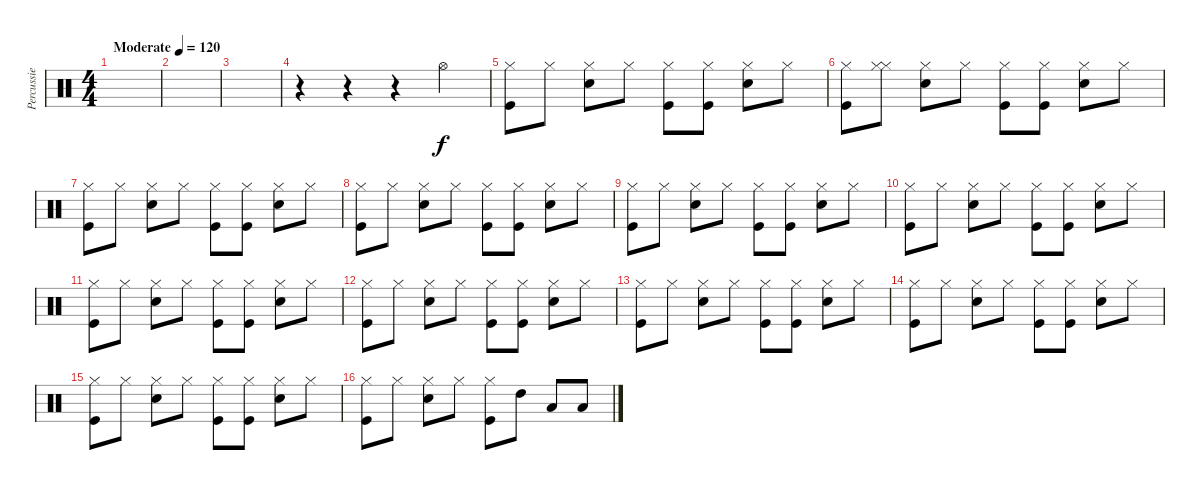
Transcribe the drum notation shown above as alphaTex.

\track ("Percussie" "Percussie") {instrument percussion}
\staff {score}
\articulation defaults
\ts (4 4)
\tempo (120 "Moderate")
\clef neutral
\ks c
|
|
|
r.4 r.4 r.4 "Hi-Hat (open)".4 |
("Kick (hit)" "Hi-Hat (closed)").8 "Hi-Hat (closed)".8 ("Snare (hit) 2" "Hi-Hat (closed)").8 "Hi-Hat (closed)".8 ("Kick (hit)" "Hi-Hat (closed)").8 ("Kick (hit)" "Hi-Hat (closed)").8 ("Snare (hit) 2" "Hi-Hat (closed)").8 "Hi-Hat (closed)".8 |
("Kick (hit)" "Hi-Hat (closed)").8 ("Hi-Hat (closed)" "Hi-Hat (closed)").8 ("Snare (hit) 2" "Hi-Hat (closed)").8 "Hi-Hat (closed)".8 ("Kick (hit)" "Hi-Hat (closed)").8 ("Kick (hit)" "Hi-Hat (closed)").8 ("Snare (hit) 2" "Hi-Hat (closed)").8 "Hi-Hat (closed)".8 |
("Kick (hit)" "Hi-Hat (closed)").8 "Hi-Hat (closed)".8 ("Snare (hit) 2" "Hi-Hat (closed)").8 "Hi-Hat (closed)".8 ("Kick (hit)" "Hi-Hat (closed)").8 ("Kick (hit)" "Hi-Hat (closed)").8 ("Snare (hit) 2" "Hi-Hat (closed)").8 "Hi-Hat (closed)".8 |
("Kick (hit)" "Hi-Hat (closed)").8 "Hi-Hat (closed)".8 ("Snare (hit) 2" "Hi-Hat (closed)").8 "Hi-Hat (closed)".8 ("Kick (hit)" "Hi-Hat (closed)").8 ("Kick (hit)" "Hi-Hat (closed)").8 ("Snare (hit) 2" "Hi-Hat (closed)").8 "Hi-Hat (closed)".8 |
("Kick (hit)" "Hi-Hat (closed)").8 "Hi-Hat (closed)".8 ("Snare (hit) 2" "Hi-Hat (closed)").8 "Hi-Hat (closed)".8 ("Kick (hit)" "Hi-Hat (closed)").8 ("Kick (hit)" "Hi-Hat (closed)").8 ("Snare (hit) 2" "Hi-Hat (closed)").8 "Hi-Hat (closed)".8 |
("Kick (hit)" "Hi-Hat (closed)").8 "Hi-Hat (closed)".8 ("Snare (hit) 2" "Hi-Hat (closed)").8 "Hi-Hat (closed)".8 ("Kick (hit)" "Hi-Hat (closed)").8 ("Kick (hit)" "Hi-Hat (closed)").8 ("Snare (hit) 2" "Hi-Hat (closed)").8 "Hi-Hat (closed)".8 |
("Kick (hit)" "Hi-Hat (closed)").8 "Hi-Hat (closed)".8 ("Snare (hit) 2" "Hi-Hat (closed)").8 "Hi-Hat (closed)".8 ("Kick (hit)" "Hi-Hat (closed)").8 ("Kick (hit)" "Hi-Hat (closed)").8 ("Snare (hit) 2" "Hi-Hat (closed)").8 "Hi-Hat (closed)".8 |
("Kick (hit)" "Hi-Hat (closed)").8 "Hi-Hat (closed)".8 ("Snare (hit) 2" "Hi-Hat (closed)").8 "Hi-Hat (closed)".8 ("Kick (hit)" "Hi-Hat (closed)").8 ("Kick (hit)" "Hi-Hat (closed)").8 ("Snare (hit) 2" "Hi-Hat (closed)").8 "Hi-Hat (closed)".8 |
("Kick (hit)" "Hi-Hat (closed)").8 "Hi-Hat (closed)".8 ("Snare (hit) 2" "Hi-Hat (closed)").8 "Hi-Hat (closed)".8 ("Kick (hit)" "Hi-Hat (closed)").8 ("Kick (hit)" "Hi-Hat (closed)").8 ("Snare (hit) 2" "Hi-Hat (closed)").8 "Hi-Hat (closed)".8 |
("Kick (hit)" "Hi-Hat (closed)").8 "Hi-Hat (closed)".8 ("Snare (hit) 2" "Hi-Hat (closed)").8 "Hi-Hat (closed)".8 ("Kick (hit)" "Hi-Hat (closed)").8 ("Kick (hit)" "Hi-Hat (closed)").8 ("Snare (hit) 2" "Hi-Hat (closed)").8 "Hi-Hat (closed)".8 |
("Kick (hit)" "Hi-Hat (closed)").8 "Hi-Hat (closed)".8 ("Snare (hit) 2" "Hi-Hat (closed)").8 "Hi-Hat (closed)".8 ("Kick (hit)" "Hi-Hat (closed)").8 ("Kick (hit)" "Hi-Hat (closed)").8 ("Snare (hit) 2" "Hi-Hat (closed)").8 "Hi-Hat (closed)".8 |
("Kick (hit)" "Hi-Hat (closed)").8 "Hi-Hat (closed)".8 ("Snare (hit) 2" "Hi-Hat (closed)").8 "Hi-Hat (closed)".8 ("Kick (hit)" "Hi-Hat (closed)").8 "High Tom (hit)".8 "Low Tom (hit)".8 "Low Floor Tom (hit)".8
